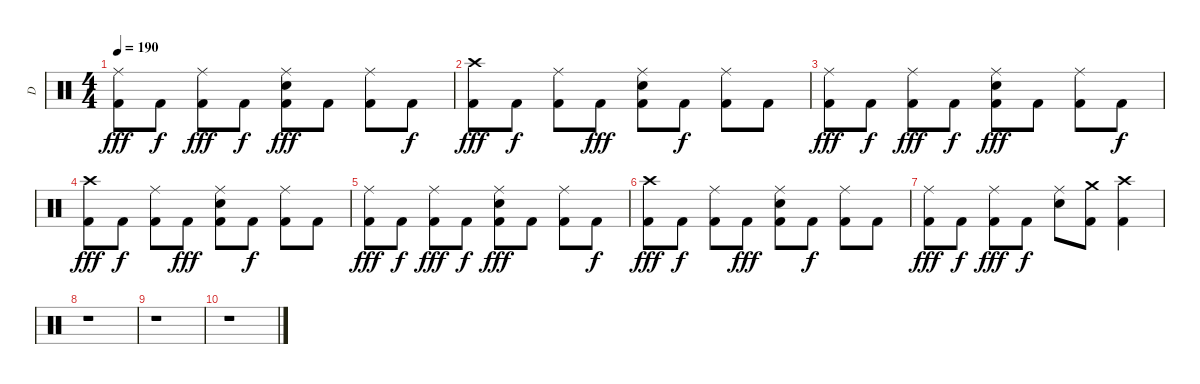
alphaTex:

\track ("D" "D") {instrument percussion}
\staff {score}
\articulation defaults
\ts (4 4)
\tempo 190
\clef neutral
\ks c
("Ride (middle)" "Kick (hit) 2").8{dy fff} "Kick (hit) 2".8{dy f} ("Ride (middle)" "Kick (hit) 2").8{dy fff} "Kick (hit) 2".8{dy f} ("Ride (middle)" "Electric Snare (hit)" "Kick (hit) 2").8{dy fff} "Kick (hit) 2".8 ("Ride (middle)" "Kick (hit) 2").8 "Kick (hit) 2".8{dy f} |
("Crash high (hit)" "Kick (hit) 2").8{dy fff} "Kick (hit) 2".8{dy f} ("Ride (middle)" "Kick (hit) 2").8 "Kick (hit) 2".8{dy fff} ("Ride (middle)" "Electric Snare (hit)" "Kick (hit) 2").8 "Kick (hit) 2".8{dy f} ("Ride (middle)" "Kick (hit) 2").8 "Kick (hit) 2".8 |
("Ride (middle)" "Kick (hit) 2").8{dy fff} "Kick (hit) 2".8{dy f} ("Ride (middle)" "Kick (hit) 2").8{dy fff} "Kick (hit) 2".8{dy f} ("Ride (middle)" "Electric Snare (hit)" "Kick (hit) 2").8{dy fff} "Kick (hit) 2".8 ("Ride (middle)" "Kick (hit) 2").8 "Kick (hit) 2".8{dy f} |
("Crash high (hit)" "Kick (hit) 2").8{dy fff} "Kick (hit) 2".8{dy f} ("Ride (middle)" "Kick (hit) 2").8 "Kick (hit) 2".8{dy fff} ("Ride (middle)" "Electric Snare (hit)" "Kick (hit) 2").8 "Kick (hit) 2".8{dy f} ("Ride (middle)" "Kick (hit) 2").8 "Kick (hit) 2".8 |
("Ride (middle)" "Kick (hit) 2").8{dy fff} "Kick (hit) 2".8{dy f} ("Ride (middle)" "Kick (hit) 2").8{dy fff} "Kick (hit) 2".8{dy f} ("Ride (middle)" "Electric Snare (hit)" "Kick (hit) 2").8{dy fff} "Kick (hit) 2".8 ("Ride (middle)" "Kick (hit) 2").8 "Kick (hit) 2".8{dy f} |
("Crash high (hit)" "Kick (hit) 2").8{dy fff} "Kick (hit) 2".8{dy f} ("Ride (middle)" "Kick (hit) 2").8 "Kick (hit) 2".8{dy fff} ("Ride (middle)" "Electric Snare (hit)" "Kick (hit) 2").8 "Kick (hit) 2".8{dy f} ("Ride (middle)" "Kick (hit) 2").8 "Kick (hit) 2".8 |
("Ride (middle)" "Kick (hit) 2").8{dy fff} "Kick (hit) 2".8{dy f} ("Ride (middle)" "Kick (hit) 2").8{dy fff} "Kick (hit) 2".8{dy f} ("Ride (middle)" "Electric Snare (hit)").8 ("Crash medium (hit)" "Kick (hit) 2").8 ("Crash high (hit)" "Kick (hit) 2").4 |
r.1 |
r.1 |
r.1
